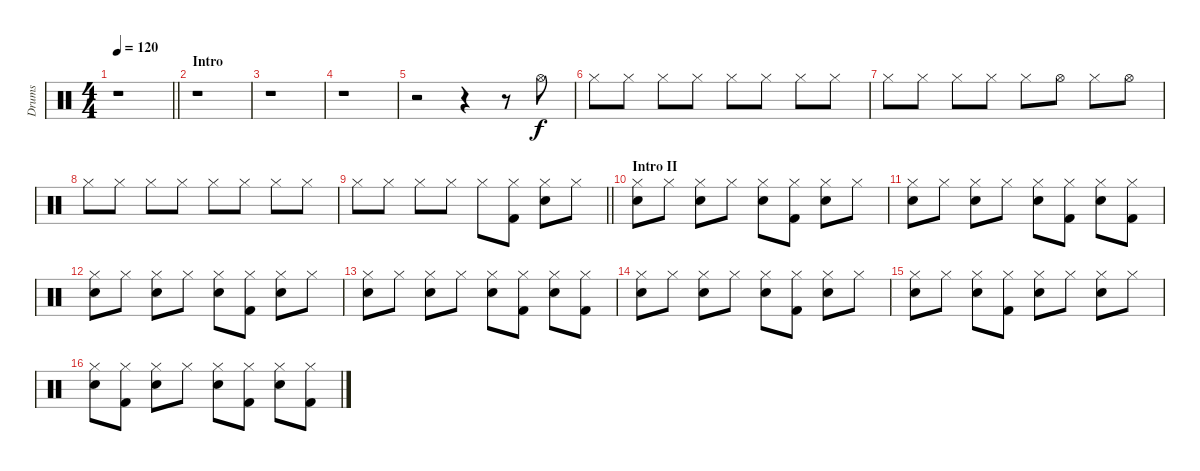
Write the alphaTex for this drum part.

\track ("Drums" "Drums") {instrument percussion}
\staff {score}
\articulation defaults
\ts (4 4)
\tempo 120
\clef neutral
\barLineRight lightlight
\ks c
r.1{dy f} |
\section ("" "Intro")
r.1 |
r.1 |
r.1 |
r.2 r.4 r.8 "Hi-Hat (open)".8 |
"Hi-Hat (closed)".8 "Hi-Hat (closed)".8 "Hi-Hat (closed)".8 "Hi-Hat (closed)".8 "Hi-Hat (closed)".8 "Hi-Hat (closed)".8 "Hi-Hat (closed)".8 "Hi-Hat (closed)".8 |
"Hi-Hat (closed)".8 "Hi-Hat (closed)".8 "Hi-Hat (closed)".8 "Hi-Hat (closed)".8 "Hi-Hat (closed)".8 "Hi-Hat (open)".8 "Hi-Hat (closed)".8 "Hi-Hat (open)".8 |
"Hi-Hat (closed)".8 "Hi-Hat (closed)".8 "Hi-Hat (closed)".8 "Hi-Hat (closed)".8 "Hi-Hat (closed)".8 "Hi-Hat (closed)".8 "Hi-Hat (closed)".8 "Hi-Hat (closed)".8 |
\barLineRight lightlight "Hi-Hat (closed)".8 "Hi-Hat (closed)".8 "Hi-Hat (closed)".8 "Hi-Hat (closed)".8 "Hi-Hat (closed)".8
("Hi-Hat (closed)" "Kick (hit) 2").8 ("Hi-Hat (closed)" "Snare (hit) 2").8 "Hi-Hat (closed)".8 |
\section ("" "Intro II")
("Hi-Hat (closed)" "Snare (hit) 2").8 "Hi-Hat (closed)".8 ("Hi-Hat (closed)" "Snare (hit) 2").8 "Hi-Hat (closed)".8 ("Hi-Hat (closed)" "Snare (hit) 2").8 ("Hi-Hat (closed)" "Kick (hit) 2").8 ("Hi-Hat (closed)" "Snare (hit) 2").8 "Hi-Hat (closed)".8 |
("Hi-Hat (closed)" "Snare (hit) 2").8 "Hi-Hat (closed)".8 ("Hi-Hat (closed)" "Snare (hit) 2").8 "Hi-Hat (closed)".8 ("Hi-Hat (closed)" "Snare (hit) 2").8 ("Hi-Hat (closed)" "Kick (hit) 2").8 ("Hi-Hat (closed)" "Snare (hit) 2").8 ("Hi-Hat (closed)" "Kick (hit) 2").8 |
("Hi-Hat (closed)" "Snare (hit) 2").8 "Hi-Hat (closed)".8 ("Hi-Hat (closed)" "Snare (hit) 2").8 "Hi-Hat (closed)".8 ("Hi-Hat (closed)" "Snare (hit) 2").8 ("Hi-Hat (closed)" "Kick (hit) 2").8 ("Hi-Hat (closed)" "Snare (hit) 2").8 "Hi-Hat (closed)".8 |
("Hi-Hat (closed)" "Snare (hit) 2").8 "Hi-Hat (closed)".8 ("Hi-Hat (closed)" "Snare (hit) 2").8 "Hi-Hat (closed)".8 ("Hi-Hat (closed)" "Snare (hit) 2").8 ("Hi-Hat (closed)" "Kick (hit) 2").8 ("Hi-Hat (closed)" "Snare (hit) 2").8 ("Hi-Hat (closed)" "Kick (hit) 2").8 |
("Hi-Hat (closed)" "Snare (hit) 2").8 "Hi-Hat (closed)".8 ("Hi-Hat (closed)" "Snare (hit) 2").8 "Hi-Hat (closed)".8 ("Hi-Hat (closed)" "Snare (hit) 2").8 ("Hi-Hat (closed)" "Kick (hit) 2").8 ("Hi-Hat (closed)" "Snare (hit) 2").8 "Hi-Hat (closed)".8 |
("Hi-Hat (closed)" "Snare (hit) 2").8 "Hi-Hat (closed)".8 ("Hi-Hat (closed)" "Snare (hit) 2").8 ("Hi-Hat (closed)" "Kick (hit) 2").8 ("Hi-Hat (closed)" "Snare (hit) 2").8 "Hi-Hat (closed)".8 ("Hi-Hat (closed)" "Snare (hit) 2").8 "Hi-Hat (closed)".8 |
("Hi-Hat (closed)" "Snare (hit) 2").8 ("Hi-Hat (closed)" "Kick (hit) 2").8 ("Hi-Hat (closed)" "Snare (hit) 2").8 "Hi-Hat (closed)".8 ("Hi-Hat (closed)" "Snare (hit) 2").8 ("Hi-Hat (closed)" "Kick (hit) 2").8 ("Hi-Hat (closed)" "Snare (hit) 2").8 ("Hi-Hat (closed)" "Kick (hit) 2").8
